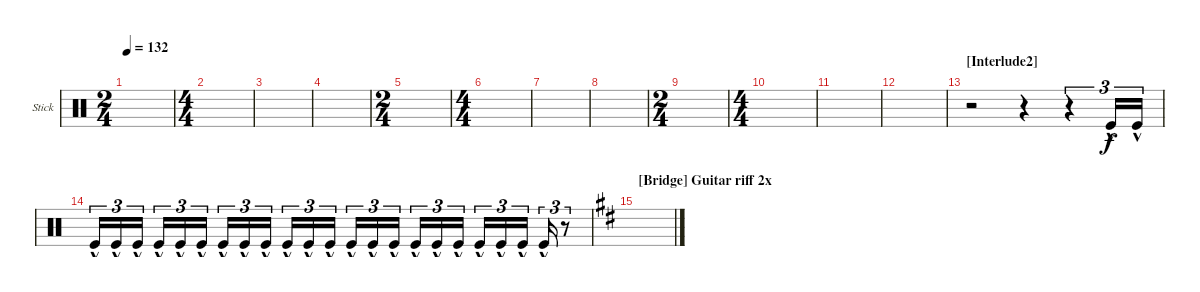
\bracketExtendMode groupsimilarinstruments
\firstSystemTrackNameOrientation horizontal
\otherSystemsTrackNameOrientation horizontal
\track ("Side Stick" "Stick") {instrument percussion}
\staff {score}
\articulation defaults
\ts (2 4)
\tempo 132
\clef neutral
\ks aminor
|
\ts (4 4)
|
|
|
\ts (2 4)
|
\ts (4 4)
|
|
|
\ts (2 4)
|
\ts (4 4)
|
|
|
\section ("" "[Interlude2] ")
r.2 r.4 r.4{tu (3 2)} "Kick (hit)"{hac}.16{tu (3 2)} "Kick (hit)"{hac}.16{tu (3 2)} |
"Kick (hit)"{hac}.16{tu (3 2)} "Kick (hit)"{hac}.16{tu (3 2)} "Kick (hit)"{hac}.16{tu (3 2)} "Kick (hit)"{hac}.16{tu (3 2)} "Kick (hit)"{hac}.16{tu (3 2)} "Kick (hit)"{hac}.16{tu (3 2)} "Kick (hit)"{hac}.16{tu (3 2)} "Kick (hit)"{hac}.16{tu (3 2)} "Kick (hit)"{hac}.16{tu (3 2)} "Kick (hit)"{hac}.16{tu (3 2)} "Kick (hit)"{hac}.16{tu (3 2)} "Kick (hit)"{hac}.16{tu (3 2)} "Kick (hit)"{hac}.16{tu (3 2)} "Kick (hit)"{hac}.16{tu (3 2)} "Kick (hit)"{hac}.16{tu (3 2)} "Kick (hit)"{hac}.16{tu (3 2)} "Kick (hit)"{hac}.16{tu (3 2)} "Kick (hit)"{hac}.16{tu (3 2)} "Kick (hit)"{hac}.16{tu (3 2)} "Kick (hit)"{hac}.16{tu (3 2)} "Kick (hit)"{hac}.16{tu (3 2)} "Kick (hit)"{hac}.16{tu (3 2)} r.8{tu (3 2)} |
\section ("" "[Bridge] Guitar riff 2x")
\ks bminor
